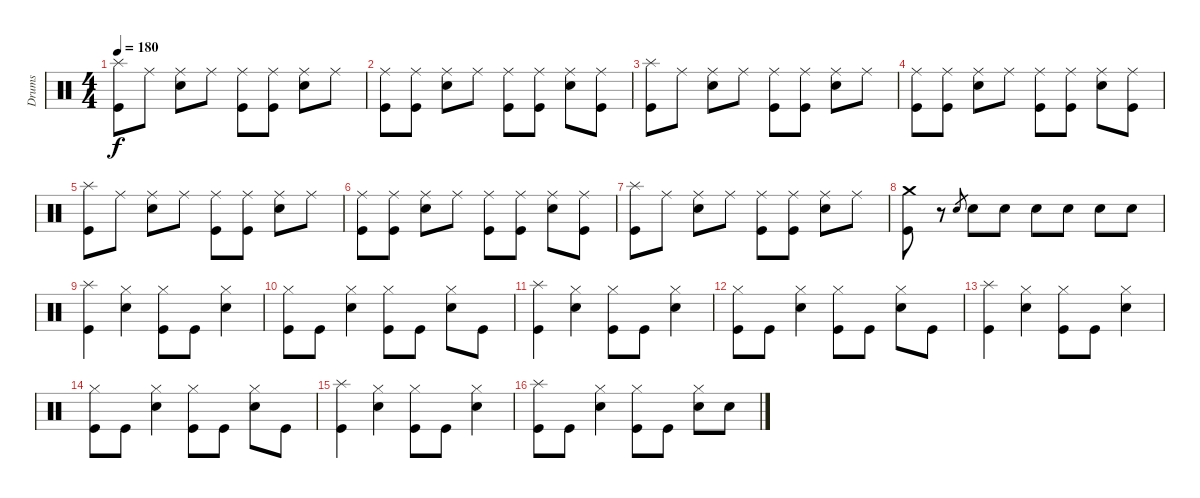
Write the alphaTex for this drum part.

\track ("Drums" "Drums") {instrument percussion}
\staff {score}
\articulation defaults
\ts (4 4)
\tempo 180
\clef neutral
\ks c
("Splash (hit)" "Kick (hit)").8{dy f} "Ride (middle)".8 ("Ride (middle)" "Electric Snare (hit)").8 "Ride (middle)".8 ("Ride (middle)" "Kick (hit)").8 ("Ride (middle)" "Kick (hit)").8 ("Ride (middle)" "Electric Snare (hit)").8 "Ride (middle)".8 |
("Ride (middle)" "Kick (hit)").8 ("Ride (middle)" "Kick (hit)").8 ("Ride (middle)" "Electric Snare (hit)").8 "Ride (middle)".8 ("Ride (middle)" "Kick (hit)").8 ("Ride (middle)" "Kick (hit)").8 ("Ride (middle)" "Electric Snare (hit)").8 ("Ride (middle)" "Kick (hit)").8 |
("Splash (hit)" "Kick (hit)").8 "Ride (middle)".8 ("Ride (middle)" "Electric Snare (hit)").8 "Ride (middle)".8 ("Ride (middle)" "Kick (hit)").8 ("Ride (middle)" "Kick (hit)").8 ("Ride (middle)" "Electric Snare (hit)").8 "Ride (middle)".8 |
("Ride (middle)" "Kick (hit)").8 ("Ride (middle)" "Kick (hit)").8 ("Ride (middle)" "Electric Snare (hit)").8 "Ride (middle)".8 ("Ride (middle)" "Kick (hit)").8 ("Ride (middle)" "Kick (hit)").8 ("Ride (middle)" "Electric Snare (hit)").8 ("Ride (middle)" "Kick (hit)").8 |
("Splash (hit)" "Kick (hit)").8 "Ride (middle)".8 ("Ride (middle)" "Electric Snare (hit)").8 "Ride (middle)".8 ("Ride (middle)" "Kick (hit)").8 ("Ride (middle)" "Kick (hit)").8 ("Ride (middle)" "Electric Snare (hit)").8 "Ride (middle)".8 |
("Ride (middle)" "Kick (hit)").8 ("Ride (middle)" "Kick (hit)").8 ("Ride (middle)" "Electric Snare (hit)").8 "Ride (middle)".8 ("Ride (middle)" "Kick (hit)").8 ("Ride (middle)" "Kick (hit)").8 ("Ride (middle)" "Electric Snare (hit)").8 ("Ride (middle)" "Kick (hit)").8 |
("Splash (hit)" "Kick (hit)").8 "Ride (middle)".8 ("Ride (middle)" "Electric Snare (hit)").8 "Ride (middle)".8 ("Ride (middle)" "Kick (hit)").8 ("Ride (middle)" "Kick (hit)").8 ("Ride (middle)" "Electric Snare (hit)").8 "Ride (middle)".8 |
("Crash medium (hit)" "Kick (hit)").8 r.8 "Electric Snare (hit)".8{gr} "Electric Snare (hit)".8 "Electric Snare (hit)".8 "Electric Snare (hit)".8 "Electric Snare (hit)".8 "Electric Snare (hit)".8 "Electric Snare (hit)".8 |
("Splash (hit)" "Kick (hit)").4 ("Hi-Hat (closed)" "Electric Snare (hit)").4 ("Hi-Hat (closed)" "Kick (hit)").8 "Kick (hit)".8 ("Hi-Hat (closed)" "Electric Snare (hit)").4 |
("Hi-Hat (closed)" "Kick (hit)").8 "Kick (hit)".8 ("Hi-Hat (closed)" "Electric Snare (hit)").4 ("Hi-Hat (closed)" "Kick (hit)").8 "Kick (hit)".8 ("Hi-Hat (closed)" "Electric Snare (hit)").8 "Kick (hit)".8 |
("Splash (hit)" "Kick (hit)").4 ("Hi-Hat (closed)" "Electric Snare (hit)").4 ("Hi-Hat (closed)" "Kick (hit)").8 "Kick (hit)".8 ("Hi-Hat (closed)" "Electric Snare (hit)").4 |
("Hi-Hat (closed)" "Kick (hit)").8 "Kick (hit)".8 ("Hi-Hat (closed)" "Electric Snare (hit)").4 ("Hi-Hat (closed)" "Kick (hit)").8 "Kick (hit)".8 ("Hi-Hat (closed)" "Electric Snare (hit)").8 "Kick (hit)".8 |
("Splash (hit)" "Kick (hit)").4 ("Hi-Hat (closed)" "Electric Snare (hit)").4 ("Hi-Hat (closed)" "Kick (hit)").8 "Kick (hit)".8 ("Hi-Hat (closed)" "Electric Snare (hit)").4 |
("Hi-Hat (closed)" "Kick (hit)").8 "Kick (hit)".8 ("Hi-Hat (closed)" "Electric Snare (hit)").4 ("Hi-Hat (closed)" "Kick (hit)").8 "Kick (hit)".8 ("Hi-Hat (closed)" "Electric Snare (hit)").8 "Kick (hit)".8 |
("Splash (hit)" "Kick (hit)").4 ("Hi-Hat (closed)" "Electric Snare (hit)").4 ("Hi-Hat (closed)" "Kick (hit)").8 "Kick (hit)".8 ("Hi-Hat (closed)" "Electric Snare (hit)").4 |
("Splash (hit)" "Kick (hit)").8 "Kick (hit)".8 ("Hi-Hat (closed)" "Electric Snare (hit)").4 ("Hi-Hat (closed)" "Kick (hit)").8 "Kick (hit)".8 ("Hi-Hat (closed)" "Electric Snare (hit)").8 "Electric Snare (hit)".8
